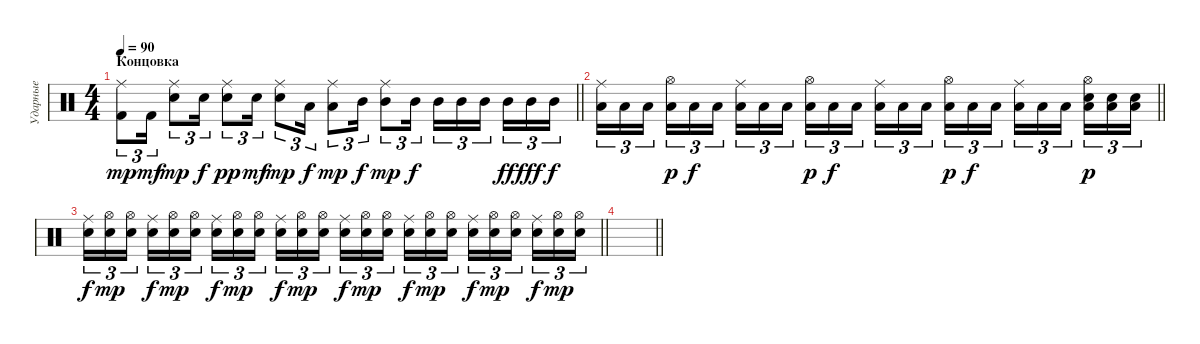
\track ("Ударные" "Ударные") {instrument percussion}
\staff {score}
\articulation defaults
\ts (4 4)
\section ("" "Концовка")
\tempo 90
\clef neutral
\barLineRight lightlight
\ks c
("Ride (middle)" "Kick (hit) 2").8{tu (3 2) dy mp} "Kick (hit) 2".16{tu (3 2) dy mf} ("Ride (middle)" "Snare (hit) 2").8{tu (3 2) dy mp} "Snare (hit) 2".16{tu (3 2) dy f} ("Ride (middle)" "Snare (hit) 2").8{tu (3 2) dy pp} "Electric Snare (hit)".16{tu (3 2) dy mf} ("Ride (middle)" "Electric Snare (hit)").8{tu (3 2) dy mp} "Low Tom (hit)".16{tu (3 2) dy f} ("Ride (middle)" "Low Tom (hit)").8{tu (3 2) dy mp} "Mid Tom (hit)".16{tu (3 2) dy f} ("Ride (middle)" "Mid Tom (hit)").8{tu (3 2) dy mp} "Mid Tom (hit)".16{tu (3 2) dy f} "Mid Tom (hit)".16{tu (3 2)} "Mid Tom (hit)".16{tu (3 2)} "Mid Tom (hit)".16{tu (3 2) beam splitsecondary} "Mid Tom (hit)".16{tu (3 2) dy ff} "Mid Tom (hit)".16{tu (3 2) dy fff} "Mid Tom (hit)".16{tu (3 2) dy f} |
\barLineRight lightlight
("Ride (middle)" "Low Tom (hit)").16{tu (3 2)} "Low Tom (hit)".16{tu (3 2)} "Low Tom (hit)".16{tu (3 2) beam splitsecondary} ("Hi-Hat (open)" "Low Tom (hit)").16{tu (3 2) dy p} "Low Tom (hit)".16{tu (3 2) dy f} "Low Tom (hit)".16{tu (3 2)} ("Ride (middle)" "Low Tom (hit)").16{tu (3 2)} "Low Tom (hit)".16{tu (3 2)} "Low Tom (hit)".16{tu (3 2) beam splitsecondary} ("Hi-Hat (open)" "Low Tom (hit)").16{tu (3 2) dy p} "Low Tom (hit)".16{tu (3 2) dy f} "Low Tom (hit)".16{tu (3 2)} ("Ride (middle)" "Low Tom (hit)").16{tu (3 2)} "Low Tom (hit)".16{tu (3 2)} "Low Tom (hit)".16{tu (3 2) beam splitsecondary} ("Hi-Hat (open)" "Low Tom (hit)").16{tu (3 2) dy p} "Low Tom (hit)".16{tu (3 2) dy f} "Low Tom (hit)".16{tu (3 2)} ("Ride (middle)" "Low Tom (hit)").16{tu (3 2)} "Low Tom (hit)".16{tu (3 2)} "Low Tom (hit)".16{tu (3 2) beam splitsecondary} ("Hi-Hat (open)" "Low Tom (hit)" "Snare (hit) 2").16{tu (3 2) dy p} ("Low Tom (hit)" "Snare (hit) 2").16{tu (3 2)} ("Low Tom (hit)" "Snare (hit) 2").16{tu (3 2)} |
\barLineRight lightlight
("Ride (middle)" "Snare (hit) 2").16{tu (3 2) dy f} ("Hi-Hat (open)" "Snare (hit) 2").16{tu (3 2) dy mp} ("Hi-Hat (open)" "Snare (hit) 2").16{tu (3 2) beam splitsecondary} ("Ride (middle)" "Snare (hit) 2").16{tu (3 2) dy f} ("Hi-Hat (open)" "Snare (hit) 2").16{tu (3 2) dy mp} ("Hi-Hat (open)" "Snare (hit) 2").16{tu (3 2)} ("Ride (middle)" "Snare (hit) 2").16{tu (3 2) dy f} ("Hi-Hat (open)" "Snare (hit) 2").16{tu (3 2) dy mp} ("Hi-Hat (open)" "Snare (hit) 2").16{tu (3 2) beam splitsecondary} ("Ride (middle)" "Snare (hit) 2").16{tu (3 2) dy f} ("Hi-Hat (open)" "Snare (hit) 2").16{tu (3 2) dy mp} ("Hi-Hat (open)" "Snare (hit) 2").16{tu (3 2)} ("Ride (middle)" "Snare (hit) 2").16{tu (3 2) dy f} ("Hi-Hat (open)" "Snare (hit) 2").16{tu (3 2) dy mp} ("Hi-Hat (open)" "Snare (hit) 2").16{tu (3 2) beam splitsecondary} ("Ride (middle)" "Snare (hit) 2").16{tu (3 2) dy f} ("Hi-Hat (open)" "Snare (hit) 2").16{tu (3 2) dy mp} ("Hi-Hat (open)" "Snare (hit) 2").16{tu (3 2)} ("Ride (middle)" "Snare (hit) 2").16{tu (3 2) dy f} ("Hi-Hat (open)" "Snare (hit) 2").16{tu (3 2) dy mp} ("Hi-Hat (open)" "Snare (hit) 2").16{tu (3 2) beam splitsecondary} ("Ride (middle)" "Snare (hit) 2").16{tu (3 2) dy f} ("Hi-Hat (open)" "Snare (hit) 2").16{tu (3 2) dy mp} ("Hi-Hat (open)" "Snare (hit) 2").16{tu (3 2)} |
\barLineRight lightlight
